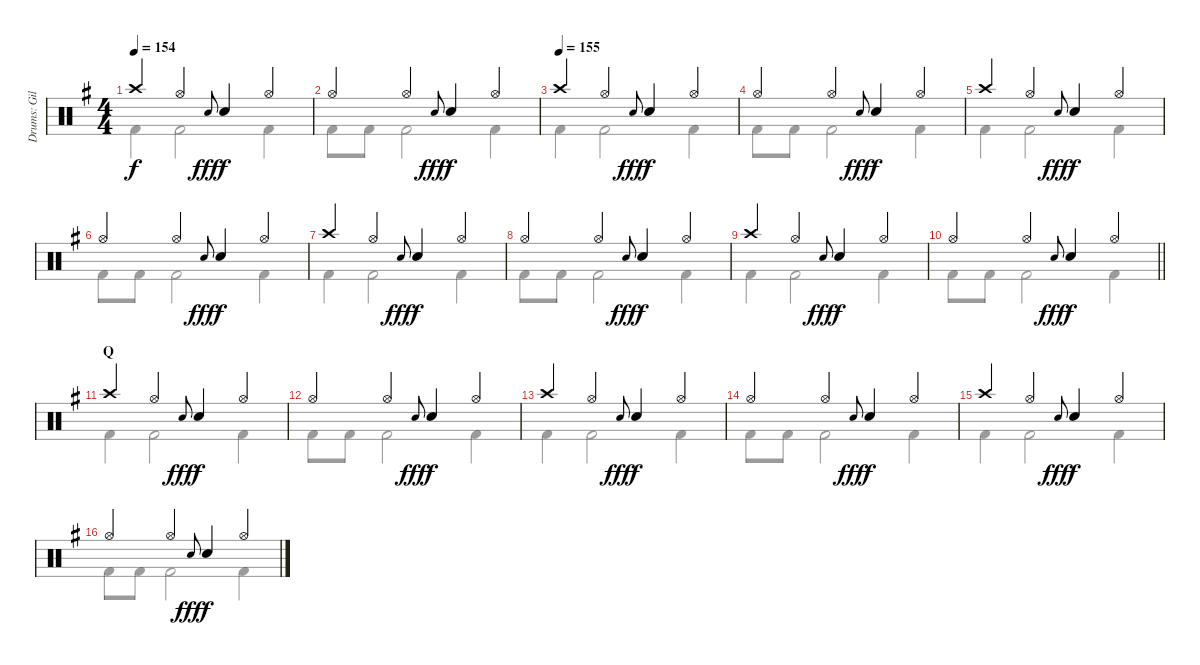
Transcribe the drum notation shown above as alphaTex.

\track ("Drums: Gil" "Drums: Gil") {instrument percussion}
\staff {score}
\articulation defaults
\voice
\ts (4 4)
\tempo 154
\clef neutral
\ks g "Crash high (hit)".4{dy f} "Hi-Hat (open)".4 "Electric Snare (hit)".8{gr onbeat dy fff} "Snare (hit) 2".4{dy f} "Hi-Hat (open)".4
|
"Hi-Hat (open)".4 "Hi-Hat (open)".4 "Electric Snare (hit)".8{gr onbeat dy fff} "Snare (hit) 2".4{dy f} "Hi-Hat (open)".4 |
\tempo (155)
"Crash high (hit)".4 "Hi-Hat (open)".4 "Electric Snare (hit)".8{gr onbeat dy fff} "Snare (hit) 2".4{dy f} "Hi-Hat (open)".4 |
"Hi-Hat (open)".4 "Hi-Hat (open)".4 "Electric Snare (hit)".8{gr onbeat dy fff} "Snare (hit) 2".4{dy f} "Hi-Hat (open)".4 |
"Crash high (hit)".4 "Hi-Hat (open)".4 "Electric Snare (hit)".8{gr onbeat dy fff} "Snare (hit) 2".4{dy f} "Hi-Hat (open)".4 |
"Hi-Hat (open)".4 "Hi-Hat (open)".4 "Electric Snare (hit)".8{gr onbeat dy fff} "Snare (hit) 2".4{dy f} "Hi-Hat (open)".4 |
"Crash high (hit)".4 "Hi-Hat (open)".4 "Electric Snare (hit)".8{gr onbeat dy fff} "Snare (hit) 2".4{dy f} "Hi-Hat (open)".4 |
"Hi-Hat (open)".4 "Hi-Hat (open)".4 "Electric Snare (hit)".8{gr onbeat dy fff} "Snare (hit) 2".4{dy f} "Hi-Hat (open)".4 |
"Crash high (hit)".4 "Hi-Hat (open)".4 "Electric Snare (hit)".8{gr onbeat dy fff} "Snare (hit) 2".4{dy f} "Hi-Hat (open)".4 |
\barLineRight lightlight "Hi-Hat (open)".4 "Hi-Hat (open)".4 "Electric Snare (hit)".8{gr onbeat dy fff} "Snare (hit) 2".4{dy f} "Hi-Hat (open)".4
|
\section ("" "Q")
"Crash high (hit)".4 "Hi-Hat (open)".4 "Electric Snare (hit)".8{gr onbeat dy fff} "Snare (hit) 2".4{dy f} "Hi-Hat (open)".4 |
"Hi-Hat (open)".4 "Hi-Hat (open)".4 "Electric Snare (hit)".8{gr onbeat dy fff} "Snare (hit) 2".4{dy f} "Hi-Hat (open)".4 |
"Crash high (hit)".4 "Hi-Hat (open)".4 "Electric Snare (hit)".8{gr onbeat dy fff} "Snare (hit) 2".4{dy f} "Hi-Hat (open)".4 |
"Hi-Hat (open)".4 "Hi-Hat (open)".4 "Electric Snare (hit)".8{gr onbeat dy fff} "Snare (hit) 2".4{dy f} "Hi-Hat (open)".4 |
"Crash high (hit)".4{volume 8} "Hi-Hat (open)".4 "Electric Snare (hit)".8{gr onbeat dy fff} "Snare (hit) 2".4{dy f} "Hi-Hat (open)".4 |
"Hi-Hat (open)".4 "Hi-Hat (open)".4 "Electric Snare (hit)".8{gr onbeat dy fff} "Snare (hit) 2".4{dy f} "Hi-Hat (open)".4
\voice
\clef neutral
\ottava regular
\simile none
\ks g "Kick (hit) 2".4{dy f} "Kick (hit) 2".2 "Kick (hit) 2".4
|
"Kick (hit) 2".8 "Kick (hit) 2".8 "Kick (hit) 2".2 "Kick (hit) 2".4 |
"Kick (hit) 2".4 "Kick (hit) 2".2 "Kick (hit) 2".4 |
"Kick (hit) 2".8 "Kick (hit) 2".8 "Kick (hit) 2".2 "Kick (hit) 2".4 |
"Kick (hit) 2".4 "Kick (hit) 2".2 "Kick (hit) 2".4 |
"Kick (hit) 2".8 "Kick (hit) 2".8 "Kick (hit) 2".2 "Kick (hit) 2".4 |
"Kick (hit) 2".4 "Kick (hit) 2".2 "Kick (hit) 2".4 |
"Kick (hit) 2".8 "Kick (hit) 2".8 "Kick (hit) 2".2 "Kick (hit) 2".4 |
"Kick (hit) 2".4 "Kick (hit) 2".2 "Kick (hit) 2".4 |
\barLineRight lightlight "Kick (hit) 2".8 "Kick (hit) 2".8 "Kick (hit) 2".2 "Kick (hit) 2".4
|
"Kick (hit) 2".4 "Kick (hit) 2".2 "Kick (hit) 2".4 |
"Kick (hit) 2".8 "Kick (hit) 2".8 "Kick (hit) 2".2 "Kick (hit) 2".4 |
"Kick (hit) 2".4 "Kick (hit) 2".2 "Kick (hit) 2".4 |
"Kick (hit) 2".8 "Kick (hit) 2".8 "Kick (hit) 2".2 "Kick (hit) 2".4 |
"Kick (hit) 2".4 "Kick (hit) 2".2 "Kick (hit) 2".4 |
"Kick (hit) 2".8 "Kick (hit) 2".8 "Kick (hit) 2".2 "Kick (hit) 2".4
